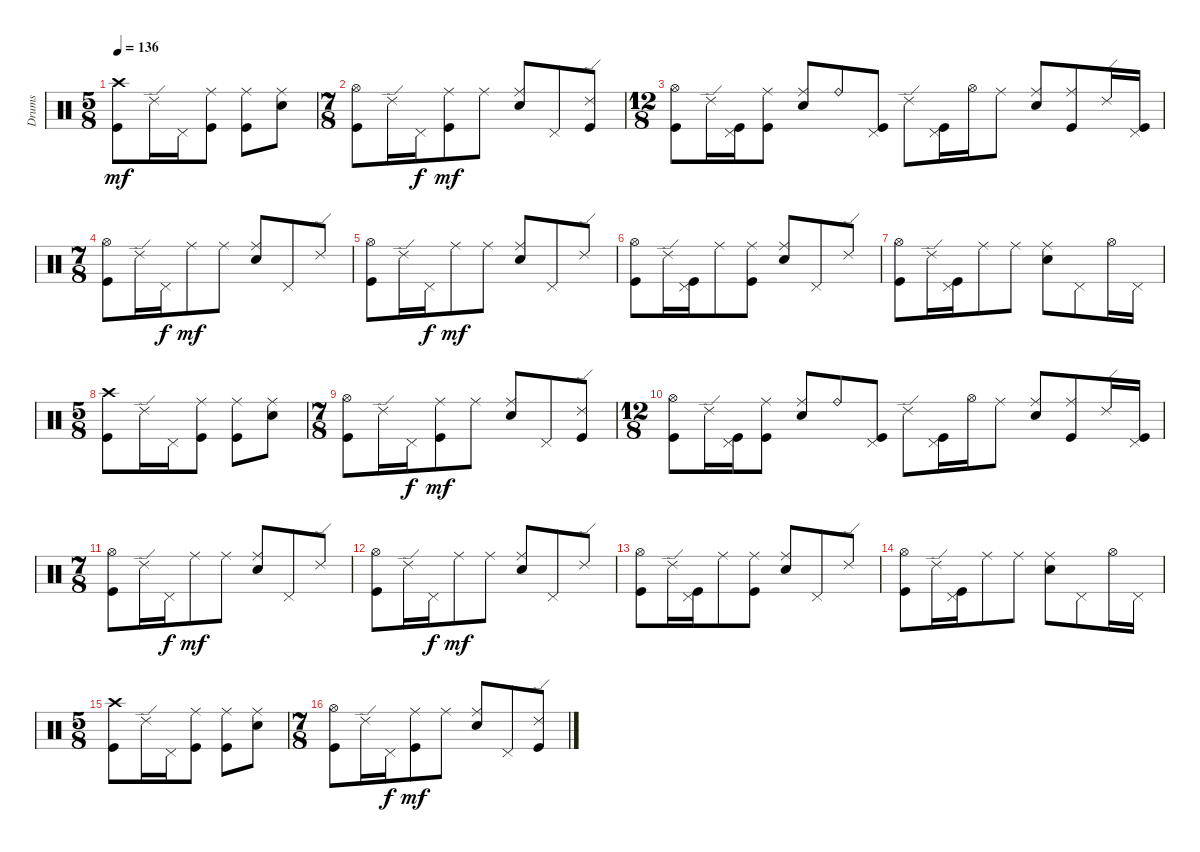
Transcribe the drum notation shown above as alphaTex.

\track ("Drums" "Drums") {instrument percussion}
\staff {score}
\articulation defaults
\ts (5 8)
\tempo 136
\clef neutral
\ks c
("Crash high (hit)" "Kick (hit)").8{dy mf} "Ride (edge) 2".16 "Pedal Hi-Hat (hit)".16 ("Ride (middle)" "Kick (hit)").8 ("Ride (middle)" "Kick (hit)").8 ("Ride (middle)" "Electric Snare (hit)").8 |
\ts (7 8)
("Hi-Hat (open)" "Kick (hit)").8 "Ride (edge) 2".16 "Pedal Hi-Hat (hit)".16{dy f} ("Ride (middle)" "Kick (hit)").8{dy mf} "Ride (middle)".8 ("Ride (middle)" "Electric Snare (hit)").8 "Pedal Hi-Hat (hit)".8 ("Ride (edge) 2" "Kick (hit)").8 |
\ts (12 8)
("Hi-Hat (open)" "Kick (hit)").8 "Ride (edge) 2".16 ("Pedal Hi-Hat (hit)" "Kick (hit)").16 ("Ride (middle)" "Kick (hit)").8 ("Ride (middle)" "Electric Snare (hit)").8 "Ride (bell)".8 ("Pedal Hi-Hat (hit)" "Kick (hit)").8 "Ride (edge) 2".8 ("Pedal Hi-Hat (hit)" "Kick (hit)").16 "Hi-Hat (open)".16 "Ride (middle)".8 ("Ride (middle)" "Electric Snare (hit)").8 ("Ride (middle)" "Kick (hit)").8 "Ride (edge) 2".16 ("Pedal Hi-Hat (hit)" "Kick (hit)").16 |
\ts (7 8)
("Hi-Hat (open)" "Kick (hit)").8 "Ride (edge) 2".16 "Pedal Hi-Hat (hit)".16{dy f} "Ride (middle)".8{dy mf} "Ride (middle)".8 ("Ride (middle)" "Electric Snare (hit)").8 "Pedal Hi-Hat (hit)".8 "Ride (edge) 2".8 |
("Hi-Hat (open)" "Kick (hit)").8 "Ride (edge) 2".16 "Pedal Hi-Hat (hit)".16{dy f} "Ride (middle)".8{dy mf} "Ride (middle)".8 ("Ride (middle)" "Electric Snare (hit)").8 "Pedal Hi-Hat (hit)".8 "Ride (edge) 2".8 |
("Hi-Hat (open)" "Kick (hit)").8 "Ride (edge) 2".16 ("Pedal Hi-Hat (hit)" "Kick (hit)").16 "Ride (middle)".8 ("Ride (middle)" "Kick (hit)").8 ("Ride (middle)" "Electric Snare (hit)").8 "Pedal Hi-Hat (hit)".8 "Ride (edge) 2".8 |
("Hi-Hat (open)" "Kick (hit)").8 "Ride (edge) 2".16 ("Pedal Hi-Hat (hit)" "Kick (hit)").16 "Ride (middle)".8 "Ride (middle)".8 ("Ride (middle)" "Electric Snare (hit)").8 "Pedal Hi-Hat (hit)".8 "Hi-Hat (open)".16 "Pedal Hi-Hat (hit)".16 |
\ts (5 8)
("Crash high (hit)" "Kick (hit)").8 "Ride (edge) 2".16 "Pedal Hi-Hat (hit)".16 ("Ride (middle)" "Kick (hit)").8 ("Ride (middle)" "Kick (hit)").8 ("Ride (middle)" "Electric Snare (hit)").8 |
\ts (7 8)
("Hi-Hat (open)" "Kick (hit)").8 "Ride (edge) 2".16 "Pedal Hi-Hat (hit)".16{dy f} ("Ride (middle)" "Kick (hit)").8{dy mf} "Ride (middle)".8 ("Ride (middle)" "Electric Snare (hit)").8 "Pedal Hi-Hat (hit)".8 ("Ride (edge) 2" "Kick (hit)").8 |
\ts (12 8)
("Hi-Hat (open)" "Kick (hit)").8 "Ride (edge) 2".16 ("Pedal Hi-Hat (hit)" "Kick (hit)").16 ("Ride (middle)" "Kick (hit)").8 ("Ride (middle)" "Electric Snare (hit)").8 "Ride (bell)".8 ("Pedal Hi-Hat (hit)" "Kick (hit)").8 "Ride (edge) 2".8 ("Pedal Hi-Hat (hit)" "Kick (hit)").16 "Hi-Hat (open)".16 "Ride (middle)".8 ("Ride (middle)" "Electric Snare (hit)").8 ("Ride (middle)" "Kick (hit)").8 "Ride (edge) 2".16 ("Pedal Hi-Hat (hit)" "Kick (hit)").16 |
\ts (7 8)
("Hi-Hat (open)" "Kick (hit)").8 "Ride (edge) 2".16 "Pedal Hi-Hat (hit)".16{dy f} "Ride (middle)".8{dy mf} "Ride (middle)".8 ("Ride (middle)" "Electric Snare (hit)").8 "Pedal Hi-Hat (hit)".8 "Ride (edge) 2".8 |
("Hi-Hat (open)" "Kick (hit)").8 "Ride (edge) 2".16 "Pedal Hi-Hat (hit)".16{dy f} "Ride (middle)".8{dy mf} "Ride (middle)".8 ("Ride (middle)" "Electric Snare (hit)").8 "Pedal Hi-Hat (hit)".8 "Ride (edge) 2".8 |
("Hi-Hat (open)" "Kick (hit)").8 "Ride (edge) 2".16 ("Pedal Hi-Hat (hit)" "Kick (hit)").16 "Ride (middle)".8 ("Ride (middle)" "Kick (hit)").8 ("Ride (middle)" "Electric Snare (hit)").8 "Pedal Hi-Hat (hit)".8 "Ride (edge) 2".8 |
("Hi-Hat (open)" "Kick (hit)").8 "Ride (edge) 2".16 ("Pedal Hi-Hat (hit)" "Kick (hit)").16 "Ride (middle)".8 "Ride (middle)".8 ("Ride (middle)" "Electric Snare (hit)").8 "Pedal Hi-Hat (hit)".8 "Hi-Hat (open)".16 "Pedal Hi-Hat (hit)".16 |
\ts (5 8)
("Crash high (hit)" "Kick (hit)").8 "Ride (edge) 2".16 "Pedal Hi-Hat (hit)".16 ("Ride (middle)" "Kick (hit)").8 ("Ride (middle)" "Kick (hit)").8 ("Ride (middle)" "Electric Snare (hit)").8 |
\ts (7 8)
("Hi-Hat (open)" "Kick (hit)").8 "Ride (edge) 2".16 "Pedal Hi-Hat (hit)".16{dy f} ("Ride (middle)" "Kick (hit)").8{dy mf} "Ride (middle)".8 ("Ride (middle)" "Electric Snare (hit)").8 "Pedal Hi-Hat (hit)".8 ("Ride (edge) 2" "Kick (hit)").8
